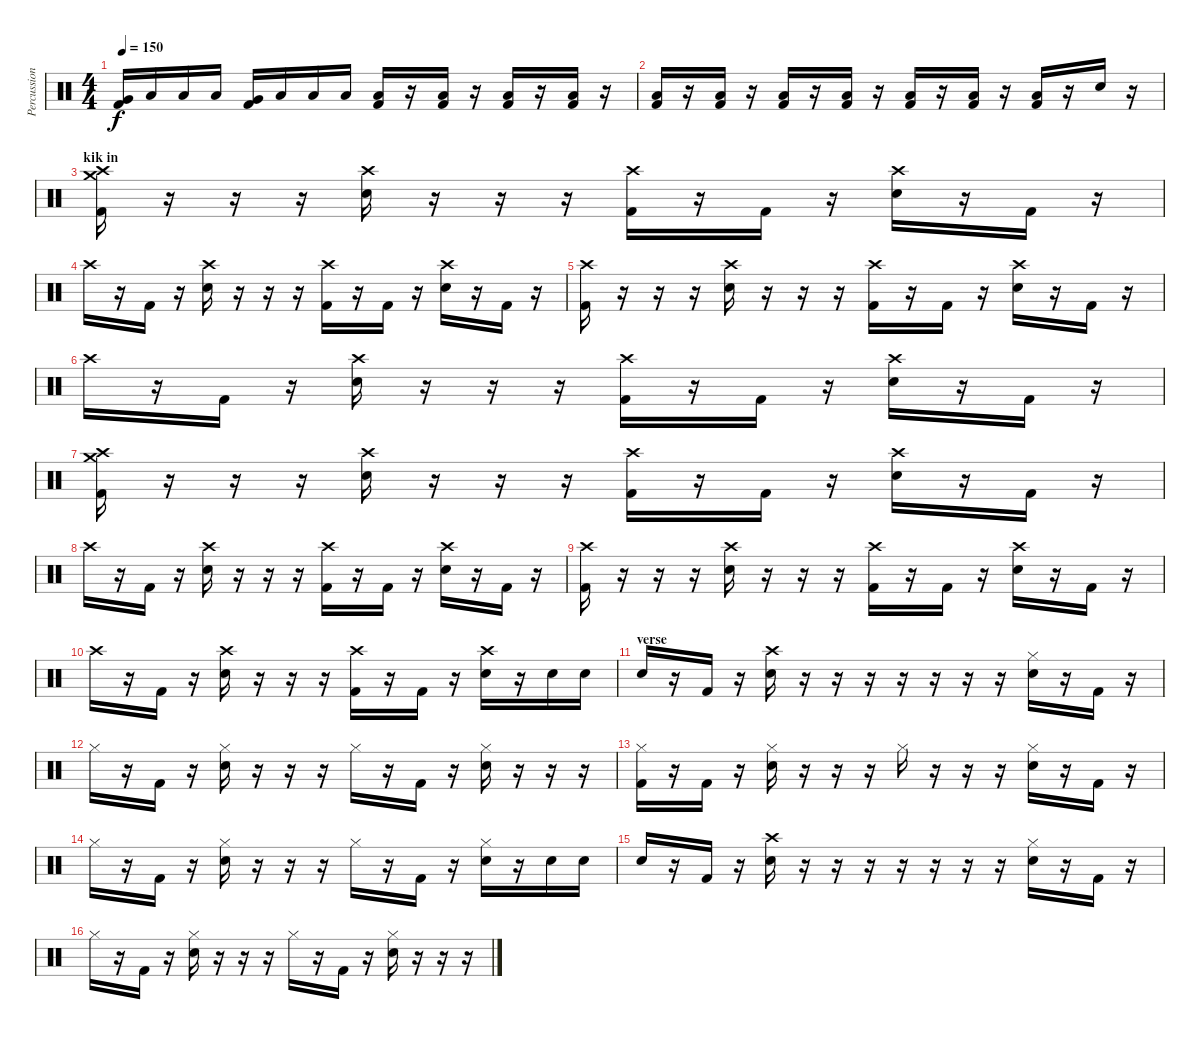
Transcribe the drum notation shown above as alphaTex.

\track ("Percussion" "Percussion") {instrument percussion}
\staff {score}
\articulation defaults
\ts (4 4)
\tempo 150
\clef neutral
\ks c
("Very Low Tom (hit)" "Kick (hit) 2").16{dy f} "Low Floor Tom (hit)".16 "Low Floor Tom (hit)".16 "Low Floor Tom (hit)".16 ("Very Low Tom (hit)" "Kick (hit) 2").16 "Low Floor Tom (hit)".16 "Low Floor Tom (hit)".16 "Low Floor Tom (hit)".16 ("Low Floor Tom (hit)" "Kick (hit) 2").16 r.16 ("Low Floor Tom (hit)" "Kick (hit) 2").16 r.16 ("Low Floor Tom (hit)" "Kick (hit) 2").16 r.16 ("Low Floor Tom (hit)" "Kick (hit) 2").16 r.16 |
("Low Floor Tom (hit)" "Kick (hit) 2").16 r.16 ("Low Floor Tom (hit)" "Kick (hit) 2").16 r.16 ("Low Floor Tom (hit)" "Kick (hit) 2").16 r.16 ("Low Floor Tom (hit)" "Kick (hit) 2").16 r.16 ("Low Floor Tom (hit)" "Kick (hit) 2").16 r.16 ("Low Floor Tom (hit)" "Kick (hit) 2").16 r.16 ("Low Floor Tom (hit)" "Kick (hit) 2").16 r.16 "Electric Snare (hit)".16 r.16 |
\section ("" "kik in")
("Crash medium (hit)" "Crash high (hit)" "Kick (hit) 2").16 r.16 r.16 r.16 ("Crash high (hit)" "Electric Snare (hit)").16 r.16 r.16 r.16 ("Crash high (hit)" "Kick (hit) 2").16 r.16 "Kick (hit) 2".16 r.16 ("Crash high (hit)" "Electric Snare (hit)").16 r.16 "Kick (hit) 2".16 r.16 |
"Crash high (hit)".16 r.16 "Kick (hit) 2".16 r.16 ("Crash high (hit)" "Electric Snare (hit)").16 r.16 r.16 r.16 ("Crash high (hit)" "Kick (hit) 2").16 r.16 "Kick (hit) 2".16 r.16 ("Crash high (hit)" "Electric Snare (hit)").16 r.16 "Kick (hit) 2".16 r.16 |
("Crash high (hit)" "Kick (hit) 2").16 r.16 r.16 r.16 ("Crash high (hit)" "Electric Snare (hit)").16 r.16 r.16 r.16 ("Crash high (hit)" "Kick (hit) 2").16 r.16 "Kick (hit) 2".16 r.16 ("Crash high (hit)" "Electric Snare (hit)").16 r.16 "Kick (hit) 2".16 r.16 |
"Crash high (hit)".16 r.16 "Kick (hit) 2".16 r.16 ("Crash high (hit)" "Electric Snare (hit)").16 r.16 r.16 r.16 ("Crash high (hit)" "Kick (hit) 2").16 r.16 "Kick (hit) 2".16 r.16 ("Crash high (hit)" "Electric Snare (hit)").16 r.16 "Kick (hit) 2".16 r.16 |
("Crash medium (hit)" "Crash high (hit)" "Kick (hit) 2").16 r.16 r.16 r.16 ("Crash high (hit)" "Electric Snare (hit)").16 r.16 r.16 r.16 ("Crash high (hit)" "Kick (hit) 2").16 r.16 "Kick (hit) 2".16 r.16 ("Crash high (hit)" "Electric Snare (hit)").16 r.16 "Kick (hit) 2".16 r.16 |
"Crash high (hit)".16 r.16 "Kick (hit) 2".16 r.16 ("Crash high (hit)" "Electric Snare (hit)").16 r.16 r.16 r.16 ("Crash high (hit)" "Kick (hit) 2").16 r.16 "Kick (hit) 2".16 r.16 ("Crash high (hit)" "Electric Snare (hit)").16 r.16 "Kick (hit) 2".16 r.16 |
("Crash high (hit)" "Kick (hit) 2").16 r.16 r.16 r.16 ("Crash high (hit)" "Electric Snare (hit)").16 r.16 r.16 r.16 ("Crash high (hit)" "Kick (hit) 2").16 r.16 "Kick (hit) 2".16 r.16 ("Crash high (hit)" "Electric Snare (hit)").16 r.16 "Kick (hit) 2".16 r.16 |
"Crash high (hit)".16 r.16 "Kick (hit) 2".16 r.16 ("Crash high (hit)" "Electric Snare (hit)").16 r.16 r.16 r.16 ("Crash high (hit)" "Kick (hit) 2").16 r.16 "Kick (hit) 2".16 r.16 ("Crash high (hit)" "Electric Snare (hit)").16 r.16 "Electric Snare (hit)".16 "Electric Snare (hit)".16 |
\section ("" "verse")
"Electric Snare (hit)".16 r.16 "Kick (hit) 2".16 r.16 ("Crash high (hit)" "Electric Snare (hit)").16 r.16 r.16 r.16 r.16 r.16 r.16 r.16 ("Hi-Hat (closed)" "Electric Snare (hit)").16 r.16 "Kick (hit) 2".16 r.16 |
"Hi-Hat (closed)".16 r.16 "Kick (hit) 2".16 r.16 ("Hi-Hat (closed)" "Electric Snare (hit)").16 r.16 r.16 r.16 "Hi-Hat (closed)".16 r.16 "Kick (hit) 2".16 r.16 ("Hi-Hat (closed)" "Electric Snare (hit)").16 r.16 r.16 r.16 |
("Hi-Hat (closed)" "Kick (hit) 2").16 r.16 "Kick (hit) 2".16 r.16 ("Hi-Hat (closed)" "Electric Snare (hit)").16 r.16 r.16 r.16 "Hi-Hat (closed)".16 r.16 r.16 r.16 ("Hi-Hat (closed)" "Electric Snare (hit)").16 r.16 "Kick (hit) 2".16 r.16 |
"Hi-Hat (closed)".16 r.16 "Kick (hit) 2".16 r.16 ("Hi-Hat (closed)" "Electric Snare (hit)").16 r.16 r.16 r.16 "Hi-Hat (closed)".16 r.16 "Kick (hit) 2".16 r.16 ("Hi-Hat (closed)" "Electric Snare (hit)").16 r.16 "Electric Snare (hit)".16 "Electric Snare (hit)".16 |
"Electric Snare (hit)".16 r.16 "Kick (hit) 2".16 r.16 ("Crash high (hit)" "Electric Snare (hit)").16 r.16 r.16 r.16 r.16 r.16 r.16 r.16 ("Hi-Hat (closed)" "Electric Snare (hit)").16 r.16 "Kick (hit) 2".16 r.16 |
"Hi-Hat (closed)".16 r.16 "Kick (hit) 2".16 r.16 ("Hi-Hat (closed)" "Electric Snare (hit)").16 r.16 r.16 r.16 "Hi-Hat (closed)".16 r.16 "Kick (hit) 2".16 r.16 ("Hi-Hat (closed)" "Electric Snare (hit)").16 r.16 r.16 r.16
